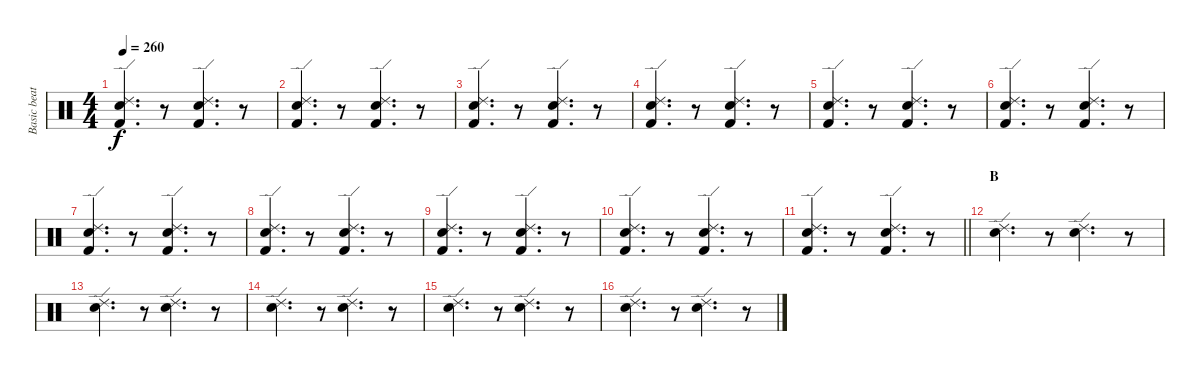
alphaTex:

\track ("Basic beat" "Basic beat") {instrument percussion}
\staff {score}
\articulation defaults
\ts (4 4)
\tempo 260
\clef neutral
\ks c
("Ride (edge) 2" "Electric Snare (hit)" "Kick (hit) 2").4{d dy f} r.8 ("Ride (edge) 2" "Electric Snare (hit)" "Kick (hit) 2").4{d} r.8 |
("Ride (edge) 2" "Electric Snare (hit)" "Kick (hit) 2").4{d} r.8 ("Ride (edge) 2" "Electric Snare (hit)" "Kick (hit) 2").4{d} r.8 |
("Ride (edge) 2" "Electric Snare (hit)" "Kick (hit) 2").4{d} r.8 ("Ride (edge) 2" "Electric Snare (hit)" "Kick (hit) 2").4{d} r.8 |
("Ride (edge) 2" "Electric Snare (hit)" "Kick (hit) 2").4{d} r.8 ("Ride (edge) 2" "Electric Snare (hit)" "Kick (hit) 2").4{d} r.8 |
("Ride (edge) 2" "Electric Snare (hit)" "Kick (hit) 2").4{d} r.8 ("Ride (edge) 2" "Electric Snare (hit)" "Kick (hit) 2").4{d} r.8 |
("Ride (edge) 2" "Electric Snare (hit)" "Kick (hit) 2").4{d} r.8 ("Ride (edge) 2" "Electric Snare (hit)" "Kick (hit) 2").4{d} r.8 |
("Ride (edge) 2" "Electric Snare (hit)" "Kick (hit) 2").4{d} r.8 ("Ride (edge) 2" "Electric Snare (hit)" "Kick (hit) 2").4{d} r.8 |
("Ride (edge) 2" "Electric Snare (hit)" "Kick (hit) 2").4{d} r.8 ("Ride (edge) 2" "Electric Snare (hit)" "Kick (hit) 2").4{d} r.8 |
("Ride (edge) 2" "Electric Snare (hit)" "Kick (hit) 2").4{d} r.8 ("Ride (edge) 2" "Electric Snare (hit)" "Kick (hit) 2").4{d} r.8 |
("Ride (edge) 2" "Electric Snare (hit)" "Kick (hit) 2").4{d} r.8 ("Ride (edge) 2" "Electric Snare (hit)" "Kick (hit) 2").4{d} r.8 |
\barLineRight lightlight
("Ride (edge) 2" "Electric Snare (hit)" "Kick (hit) 2").4{d} r.8 ("Ride (edge) 2" "Electric Snare (hit)" "Kick (hit) 2").4{d} r.8 |
\section ("" "B")
("Ride (edge) 2" "Electric Snare (hit)").4{d} r.8 ("Ride (edge) 2" "Electric Snare (hit)").4{d} r.8 |
("Ride (edge) 2" "Electric Snare (hit)").4{d} r.8 ("Ride (edge) 2" "Electric Snare (hit)").4{d} r.8 |
("Ride (edge) 2" "Electric Snare (hit)").4{d} r.8 ("Ride (edge) 2" "Electric Snare (hit)").4{d} r.8 |
("Ride (edge) 2" "Electric Snare (hit)").4{d} r.8 ("Ride (edge) 2" "Electric Snare (hit)").4{d} r.8 |
("Ride (edge) 2" "Electric Snare (hit)").4{d} r.8 ("Ride (edge) 2" "Electric Snare (hit)").4{d} r.8
